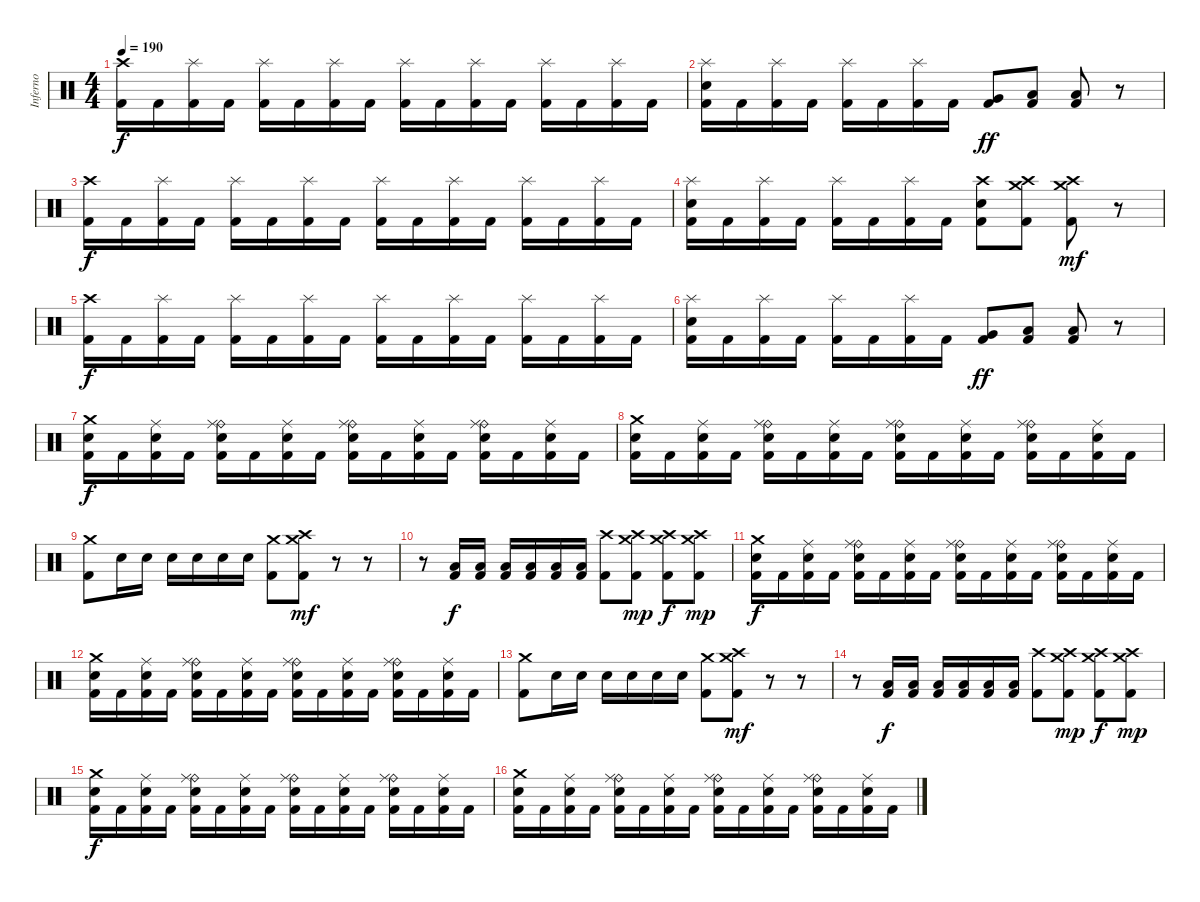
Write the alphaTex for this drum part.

\track ("Inferno" "Inferno") {instrument percussion}
\staff {score}
\articulation defaults
\ts (4 4)
\tempo 190
\clef neutral
\ks c
("Crash high (hit)" "Kick (hit) 2").16{dy f} "Kick (hit) 2".16 ("Splash (hit)" "Kick (hit) 2").16 "Kick (hit) 2".16 ("Splash (hit)" "Kick (hit) 2").16 "Kick (hit) 2".16 ("Splash (hit)" "Kick (hit) 2").16 "Kick (hit) 2".16 ("Splash (hit)" "Kick (hit) 2").16 "Kick (hit) 2".16 ("Splash (hit)" "Kick (hit) 2").16 "Kick (hit) 2".16 ("Splash (hit)" "Kick (hit) 2").16 "Kick (hit) 2".16 ("Splash (hit)" "Kick (hit) 2").16 "Kick (hit) 2".16 |
("Splash (hit)" "Snare (hit) 2" "Kick (hit) 2").16 "Kick (hit) 2".16 ("Splash (hit)" "Kick (hit) 2").16 "Kick (hit) 2".16 ("Splash (hit)" "Kick (hit) 2").16 "Kick (hit) 2".16 ("Splash (hit)" "Kick (hit) 2").16 "Kick (hit) 2".16 ("Very Low Tom (hit)" "Kick (hit) 2").8{dy ff} ("Low Floor Tom (hit)" "Kick (hit) 2").8 ("Low Floor Tom (hit)" "Kick (hit) 2").8 r.8 |
("Crash high (hit)" "Kick (hit) 2").16{dy f} "Kick (hit) 2".16 ("Splash (hit)" "Kick (hit) 2").16 "Kick (hit) 2".16 ("Splash (hit)" "Kick (hit) 2").16 "Kick (hit) 2".16 ("Splash (hit)" "Kick (hit) 2").16 "Kick (hit) 2".16 ("Splash (hit)" "Kick (hit) 2").16 "Kick (hit) 2".16 ("Splash (hit)" "Kick (hit) 2").16 "Kick (hit) 2".16 ("Splash (hit)" "Kick (hit) 2").16 "Kick (hit) 2".16 ("Splash (hit)" "Kick (hit) 2").16 "Kick (hit) 2".16 |
("Splash (hit)" "Snare (hit) 2" "Kick (hit) 2").16 "Kick (hit) 2".16 ("Splash (hit)" "Kick (hit) 2").16 "Kick (hit) 2".16 ("Splash (hit)" "Kick (hit) 2").16 "Kick (hit) 2".16 ("Splash (hit)" "Kick (hit) 2").16 "Kick (hit) 2".16 ("Crash high (hit)" "Snare (hit) 2" "Kick (hit) 2").8 ("Crash high (hit)" "Crash medium (hit)" "Kick (hit) 2").8 ("Crash high (hit)" "Crash medium (hit)" "Kick (hit) 2").8{dy mf} r.8 |
("Crash high (hit)" "Kick (hit) 2").16{dy f} "Kick (hit) 2".16 ("Splash (hit)" "Kick (hit) 2").16 "Kick (hit) 2".16 ("Splash (hit)" "Kick (hit) 2").16 "Kick (hit) 2".16 ("Splash (hit)" "Kick (hit) 2").16 "Kick (hit) 2".16 ("Splash (hit)" "Kick (hit) 2").16 "Kick (hit) 2".16 ("Splash (hit)" "Kick (hit) 2").16 "Kick (hit) 2".16 ("Splash (hit)" "Kick (hit) 2").16 "Kick (hit) 2".16 ("Splash (hit)" "Kick (hit) 2").16 "Kick (hit) 2".16 |
("Splash (hit)" "Snare (hit) 2" "Kick (hit) 2").16 "Kick (hit) 2".16 ("Splash (hit)" "Kick (hit) 2").16 "Kick (hit) 2".16 ("Splash (hit)" "Kick (hit) 2").16 "Kick (hit) 2".16 ("Splash (hit)" "Kick (hit) 2").16 "Kick (hit) 2".16 ("Very Low Tom (hit)" "Kick (hit) 2").8{dy ff} ("Low Floor Tom (hit)" "Kick (hit) 2").8 ("Low Floor Tom (hit)" "Kick (hit) 2").8 r.8 |
("Crash medium (hit)" "Snare (hit) 2" "Kick (hit) 2").16{dy f} "Kick (hit) 2".16 ("Ride (middle)" "Snare (hit) 2" "Kick (hit) 2").16 "Kick (hit) 2".16 ("Ride (bell)" "Ride (middle)" "Snare (hit) 2" "Kick (hit) 2").16 "Kick (hit) 2".16 ("Ride (middle)" "Snare (hit) 2" "Kick (hit) 2").16 "Kick (hit) 2".16 ("Ride (bell)" "Ride (middle)" "Snare (hit) 2" "Kick (hit) 2").16 "Kick (hit) 2".16 ("Ride (middle)" "Snare (hit) 2" "Kick (hit) 2").16 "Kick (hit) 2".16 ("Ride (bell)" "Ride (middle)" "Snare (hit) 2" "Kick (hit) 2").16 "Kick (hit) 2".16 ("Ride (middle)" "Snare (hit) 2" "Kick (hit) 2").16 "Kick (hit) 2".16 |
("Crash medium (hit)" "Snare (hit) 2" "Kick (hit) 2").16 "Kick (hit) 2".16 ("Ride (middle)" "Snare (hit) 2" "Kick (hit) 2").16 "Kick (hit) 2".16 ("Ride (bell)" "Ride (middle)" "Snare (hit) 2" "Kick (hit) 2").16 "Kick (hit) 2".16 ("Ride (middle)" "Snare (hit) 2" "Kick (hit) 2").16 "Kick (hit) 2".16 ("Ride (bell)" "Ride (middle)" "Snare (hit) 2" "Kick (hit) 2").16 "Kick (hit) 2".16 ("Ride (middle)" "Snare (hit) 2" "Kick (hit) 2").16 "Kick (hit) 2".16 ("Ride (bell)" "Ride (middle)" "Snare (hit) 2" "Kick (hit) 2").16 "Kick (hit) 2".16 ("Ride (middle)" "Snare (hit) 2" "Kick (hit) 2").16 "Kick (hit) 2".16 |
\section ("" "")
("Crash medium (hit)" "Kick (hit) 2").8 "Snare (hit) 2".16 "Snare (hit) 2".16 "Snare (hit) 2".16 "Snare (hit) 2".16 "Snare (hit) 2".16 "Snare (hit) 2".16 ("Crash medium (hit)" "Kick (hit) 2").8 ("Crash medium (hit)" "Crash high (hit)" "Kick (hit) 2").8{dy mf} r.8{volume 0} r.8 |
r.8 ("Low Floor Tom (hit)" "Kick (hit) 2").16{dy f volume 13} ("Low Floor Tom (hit)" "Kick (hit) 2").16 ("Low Floor Tom (hit)" "Kick (hit) 2").16 ("Low Floor Tom (hit)" "Kick (hit) 2").16 ("Low Floor Tom (hit)" "Kick (hit) 2").16 ("Low Floor Tom (hit)" "Kick (hit) 2").16 ("Crash high (hit)" "Kick (hit) 2").8 ("Crash high (hit)" "Crash medium (hit)" "Kick (hit) 2").8{dy mp} ("Crash high (hit)" "Crash medium (hit)" "Kick (hit) 2").8{dy f} ("Crash high (hit)" "Crash medium (hit)" "Kick (hit) 2").8{dy mp} |
("Crash medium (hit)" "Snare (hit) 2" "Kick (hit) 2").16{dy f} "Kick (hit) 2".16 ("Ride (middle)" "Snare (hit) 2" "Kick (hit) 2").16 "Kick (hit) 2".16 ("Ride (bell)" "Ride (middle)" "Snare (hit) 2" "Kick (hit) 2").16 "Kick (hit) 2".16 ("Ride (middle)" "Snare (hit) 2" "Kick (hit) 2").16 "Kick (hit) 2".16 ("Ride (bell)" "Ride (middle)" "Snare (hit) 2" "Kick (hit) 2").16 "Kick (hit) 2".16 ("Ride (middle)" "Snare (hit) 2" "Kick (hit) 2").16 "Kick (hit) 2".16 ("Ride (bell)" "Ride (middle)" "Snare (hit) 2" "Kick (hit) 2").16 "Kick (hit) 2".16 ("Ride (middle)" "Snare (hit) 2" "Kick (hit) 2").16 "Kick (hit) 2".16 |
("Crash medium (hit)" "Snare (hit) 2" "Kick (hit) 2").16 "Kick (hit) 2".16 ("Ride (middle)" "Snare (hit) 2" "Kick (hit) 2").16 "Kick (hit) 2".16 ("Ride (bell)" "Ride (middle)" "Snare (hit) 2" "Kick (hit) 2").16 "Kick (hit) 2".16 ("Ride (middle)" "Snare (hit) 2" "Kick (hit) 2").16 "Kick (hit) 2".16 ("Ride (bell)" "Ride (middle)" "Snare (hit) 2" "Kick (hit) 2").16 "Kick (hit) 2".16 ("Ride (middle)" "Snare (hit) 2" "Kick (hit) 2").16 "Kick (hit) 2".16 ("Ride (bell)" "Ride (middle)" "Snare (hit) 2" "Kick (hit) 2").16 "Kick (hit) 2".16 ("Ride (middle)" "Snare (hit) 2" "Kick (hit) 2").16 "Kick (hit) 2".16 |
("Crash medium (hit)" "Kick (hit) 2").8 "Snare (hit) 2".16 "Snare (hit) 2".16 "Snare (hit) 2".16 "Snare (hit) 2".16 "Snare (hit) 2".16 "Snare (hit) 2".16 ("Crash medium (hit)" "Kick (hit) 2").8 ("Crash medium (hit)" "Crash high (hit)" "Kick (hit) 2").8{dy mf} r.8{volume 0} r.8 |
r.8 ("Low Floor Tom (hit)" "Kick (hit) 2").16{dy f volume 13} ("Low Floor Tom (hit)" "Kick (hit) 2").16 ("Low Floor Tom (hit)" "Kick (hit) 2").16 ("Low Floor Tom (hit)" "Kick (hit) 2").16 ("Low Floor Tom (hit)" "Kick (hit) 2").16 ("Low Floor Tom (hit)" "Kick (hit) 2").16 ("Crash high (hit)" "Kick (hit) 2").8 ("Crash high (hit)" "Crash medium (hit)" "Kick (hit) 2").8{dy mp} ("Crash high (hit)" "Crash medium (hit)" "Kick (hit) 2").8{dy f} ("Crash high (hit)" "Crash medium (hit)" "Kick (hit) 2").8{dy mp} |
("Crash medium (hit)" "Snare (hit) 2" "Kick (hit) 2").16{dy f} "Kick (hit) 2".16 ("Ride (middle)" "Snare (hit) 2" "Kick (hit) 2").16 "Kick (hit) 2".16 ("Ride (bell)" "Ride (middle)" "Snare (hit) 2" "Kick (hit) 2").16 "Kick (hit) 2".16 ("Ride (middle)" "Snare (hit) 2" "Kick (hit) 2").16 "Kick (hit) 2".16 ("Ride (bell)" "Ride (middle)" "Snare (hit) 2" "Kick (hit) 2").16 "Kick (hit) 2".16 ("Ride (middle)" "Snare (hit) 2" "Kick (hit) 2").16 "Kick (hit) 2".16 ("Ride (bell)" "Ride (middle)" "Snare (hit) 2" "Kick (hit) 2").16 "Kick (hit) 2".16 ("Ride (middle)" "Snare (hit) 2" "Kick (hit) 2").16 "Kick (hit) 2".16 |
("Crash medium (hit)" "Snare (hit) 2" "Kick (hit) 2").16 "Kick (hit) 2".16 ("Ride (middle)" "Snare (hit) 2" "Kick (hit) 2").16 "Kick (hit) 2".16 ("Ride (bell)" "Ride (middle)" "Snare (hit) 2" "Kick (hit) 2").16 "Kick (hit) 2".16 ("Ride (middle)" "Snare (hit) 2" "Kick (hit) 2").16 "Kick (hit) 2".16 ("Ride (bell)" "Ride (middle)" "Snare (hit) 2" "Kick (hit) 2").16 "Kick (hit) 2".16 ("Ride (middle)" "Snare (hit) 2" "Kick (hit) 2").16 "Kick (hit) 2".16 ("Ride (bell)" "Ride (middle)" "Snare (hit) 2" "Kick (hit) 2").16 "Kick (hit) 2".16 ("Ride (middle)" "Snare (hit) 2" "Kick (hit) 2").16 "Kick (hit) 2".16
